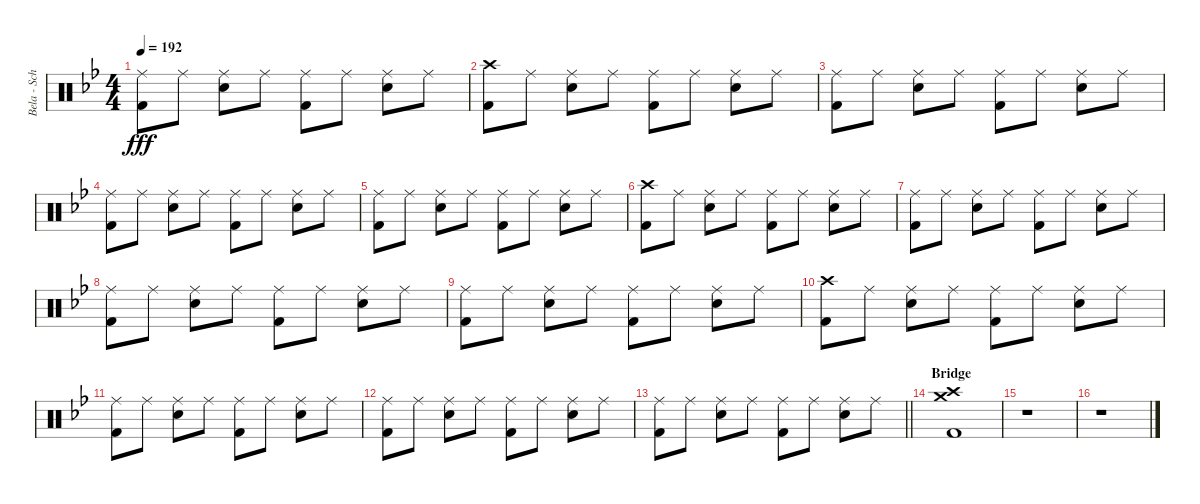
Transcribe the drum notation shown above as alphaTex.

\track ("Bela - Schlagzeug" "Bela - Sch") {instrument percussion}
\staff {score}
\articulation defaults
\ts (4 4)
\tempo 192
\clef neutral
\ks bb
("Ride (middle)" "Kick (hit) 2").8{dy fff} "Ride (middle)".8 ("Ride (middle)" "Snare (hit) 2").8 "Ride (middle)".8 ("Ride (middle)" "Kick (hit) 2").8 "Ride (middle)".8 ("Ride (middle)" "Snare (hit) 2").8 "Ride (middle)".8 |
("Crash high (hit)" "Kick (hit) 2").8 "Ride (middle)".8 ("Ride (middle)" "Snare (hit) 2").8 "Ride (middle)".8 ("Ride (middle)" "Kick (hit) 2").8 "Ride (middle)".8 ("Ride (middle)" "Snare (hit) 2").8 "Ride (middle)".8 |
("Ride (middle)" "Kick (hit) 2").8 "Ride (middle)".8 ("Ride (middle)" "Snare (hit) 2").8 "Ride (middle)".8 ("Ride (middle)" "Kick (hit) 2").8 "Ride (middle)".8 ("Ride (middle)" "Snare (hit) 2").8 "Ride (middle)".8 |
("Ride (middle)" "Kick (hit) 2").8 "Ride (middle)".8 ("Ride (middle)" "Snare (hit) 2").8 "Ride (middle)".8 ("Ride (middle)" "Kick (hit) 2").8 "Ride (middle)".8 ("Ride (middle)" "Snare (hit) 2").8 "Ride (middle)".8 |
("Ride (middle)" "Kick (hit) 2").8 "Ride (middle)".8 ("Ride (middle)" "Snare (hit) 2").8 "Ride (middle)".8 ("Ride (middle)" "Kick (hit) 2").8 "Ride (middle)".8 ("Ride (middle)" "Snare (hit) 2").8 "Ride (middle)".8 |
("Crash high (hit)" "Kick (hit) 2").8 "Ride (middle)".8 ("Ride (middle)" "Snare (hit) 2").8 "Ride (middle)".8 ("Ride (middle)" "Kick (hit) 2").8 "Ride (middle)".8 ("Ride (middle)" "Snare (hit) 2").8 "Ride (middle)".8 |
("Ride (middle)" "Kick (hit) 2").8 "Ride (middle)".8 ("Ride (middle)" "Snare (hit) 2").8 "Ride (middle)".8 ("Ride (middle)" "Kick (hit) 2").8 "Ride (middle)".8 ("Ride (middle)" "Snare (hit) 2").8 "Ride (middle)".8 |
("Ride (middle)" "Kick (hit) 2").8 "Ride (middle)".8 ("Ride (middle)" "Snare (hit) 2").8 "Ride (middle)".8 ("Ride (middle)" "Kick (hit) 2").8 "Ride (middle)".8 ("Ride (middle)" "Snare (hit) 2").8 "Ride (middle)".8 |
("Ride (middle)" "Kick (hit) 2").8 "Ride (middle)".8 ("Ride (middle)" "Snare (hit) 2").8 "Ride (middle)".8 ("Ride (middle)" "Kick (hit) 2").8 "Ride (middle)".8 ("Ride (middle)" "Snare (hit) 2").8 "Ride (middle)".8 |
("Crash high (hit)" "Kick (hit) 2").8 "Ride (middle)".8 ("Ride (middle)" "Snare (hit) 2").8 "Ride (middle)".8 ("Ride (middle)" "Kick (hit) 2").8 "Ride (middle)".8 ("Ride (middle)" "Snare (hit) 2").8 "Ride (middle)".8 |
("Ride (middle)" "Kick (hit) 2").8 "Ride (middle)".8 ("Ride (middle)" "Snare (hit) 2").8 "Ride (middle)".8 ("Ride (middle)" "Kick (hit) 2").8 "Ride (middle)".8 ("Ride (middle)" "Snare (hit) 2").8 "Ride (middle)".8 |
("Ride (middle)" "Kick (hit) 2").8 "Ride (middle)".8 ("Ride (middle)" "Snare (hit) 2").8 "Ride (middle)".8 ("Ride (middle)" "Kick (hit) 2").8 "Ride (middle)".8 ("Ride (middle)" "Snare (hit) 2").8 "Ride (middle)".8 |
\barLineRight lightlight
("Ride (middle)" "Kick (hit) 2").8 "Ride (middle)".8 ("Ride (middle)" "Snare (hit) 2").8 "Ride (middle)".8 ("Ride (middle)" "Kick (hit) 2").8 "Ride (middle)".8 ("Ride (middle)" "Snare (hit) 2").8 "Ride (middle)".8 |
\section ("" "Bridge")
("Crash high (hit)" "Crash medium (hit)" "Kick (hit) 2").1 |
r.1 |
r.1
